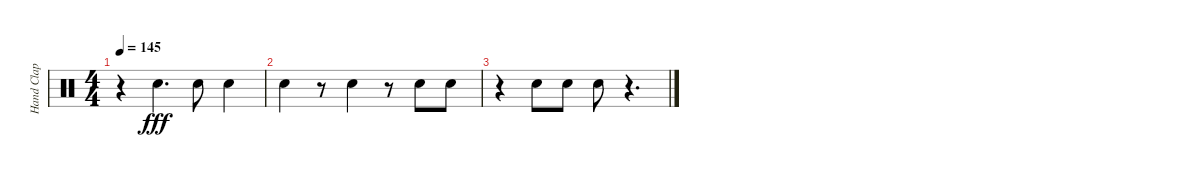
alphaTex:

\track ("Hand Clap" "Hand Clap") {instrument percussion}
\staff {score}
\articulation defaults
\ts (4 4)
\tempo 145
\clef neutral
\ks c
r.4{dy fff} "Hand Clap (hit)".4{d} "Hand Clap (hit)".8 "Hand Clap (hit)".4 |
"Hand Clap (hit)".4 r.8 "Hand Clap (hit)".4 r.8 "Hand Clap (hit)".8 "Hand Clap (hit)".8 |
r.4 "Hand Clap (hit)".8 "Hand Clap (hit)".8 "Hand Clap (hit)".8 r.4{d}
